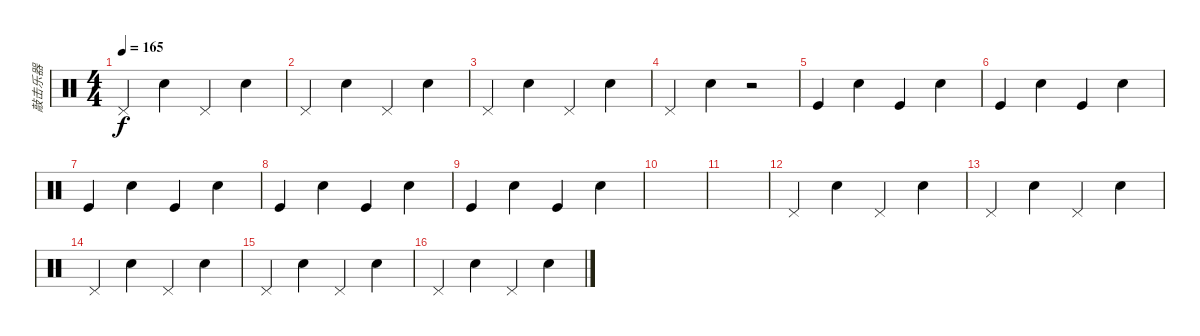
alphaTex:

\track ("敲击乐器" "敲击乐器") {instrument percussion}
\staff {score}
\articulation defaults
\ts (4 4)
\tempo 165
\clef neutral
\ks c "Pedal Hi-Hat (hit)".4{dy f} "Snare (hit) 2".4 "Pedal Hi-Hat (hit)".4 "Snare (hit) 2".4
|
"Pedal Hi-Hat (hit)".4 "Snare (hit) 2".4 "Pedal Hi-Hat (hit)".4 "Snare (hit) 2".4 |
"Pedal Hi-Hat (hit)".4 "Snare (hit) 2".4 "Pedal Hi-Hat (hit)".4 "Snare (hit) 2".4 |
"Pedal Hi-Hat (hit)".4 "Snare (hit) 2".4 r.2 |
"Kick (hit)".4 "Snare (hit) 2".4 "Kick (hit)".4 "Snare (hit) 2".4 |
"Kick (hit)".4 "Snare (hit) 2".4 "Kick (hit)".4 "Snare (hit) 2".4 |
"Kick (hit)".4 "Snare (hit) 2".4 "Kick (hit)".4 "Snare (hit) 2".4 |
"Kick (hit)".4 "Snare (hit) 2".4 "Kick (hit)".4 "Snare (hit) 2".4 |
"Kick (hit)".4 "Snare (hit) 2".4 "Kick (hit)".4 "Snare (hit) 2".4 |
|
|
"Pedal Hi-Hat (hit)".4 "Snare (hit) 2".4 "Pedal Hi-Hat (hit)".4 "Snare (hit) 2".4 |
"Pedal Hi-Hat (hit)".4 "Snare (hit) 2".4 "Pedal Hi-Hat (hit)".4 "Snare (hit) 2".4 |
"Pedal Hi-Hat (hit)".4 "Snare (hit) 2".4 "Pedal Hi-Hat (hit)".4 "Snare (hit) 2".4 |
"Pedal Hi-Hat (hit)".4 "Snare (hit) 2".4 "Pedal Hi-Hat (hit)".4 "Snare (hit) 2".4 |
"Pedal Hi-Hat (hit)".4 "Snare (hit) 2".4 "Pedal Hi-Hat (hit)".4 "Snare (hit) 2".4
